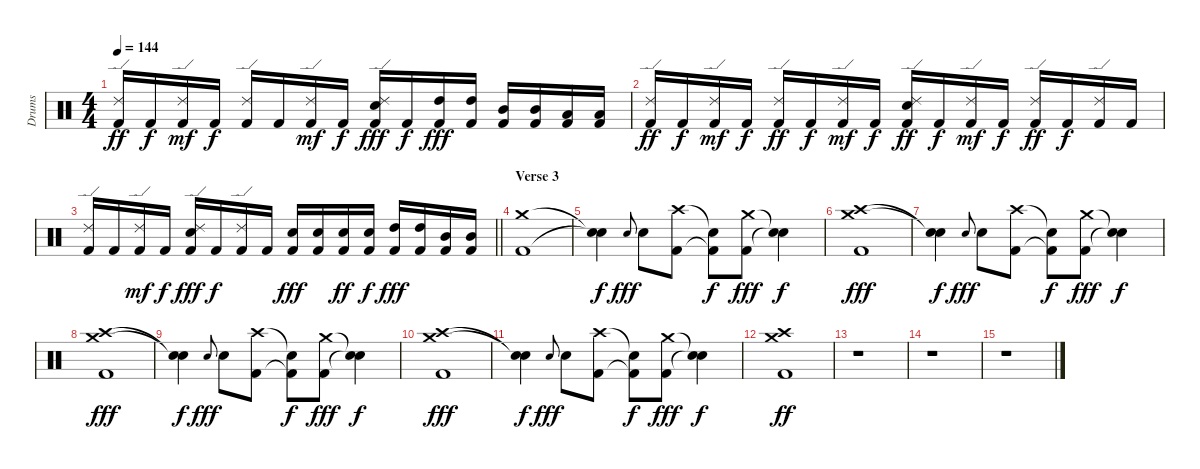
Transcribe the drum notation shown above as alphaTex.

\track ("Drums" "Drums") {instrument percussion}
\staff {score}
\articulation defaults
\ts (4 4)
\tempo 144
\clef neutral
\ks c
("Ride (edge) 2" "Kick (hit) 2").16{dy ff} "Kick (hit) 2".16{dy f} ("Ride (edge) 2" "Kick (hit) 2").16{dy mf} "Kick (hit) 2".16{dy f} ("Ride (edge) 2" "Kick (hit) 2").16 "Kick (hit) 2".16 ("Ride (edge) 2" "Kick (hit) 2").16{dy mf} "Kick (hit) 2".16{dy f} ("Ride (edge) 2" "Electric Snare (hit)" "Kick (hit) 2").16{dy fff} "Kick (hit) 2".16{dy f} ("High Tom (hit)" "Kick (hit) 2").16{dy fff} ("High Tom (hit)" "Kick (hit) 2").16 ("Mid Tom (hit)" "Kick (hit) 2").16 ("Mid Tom (hit)" "Kick (hit) 2").16 ("Low Tom (hit)" "Kick (hit) 2").16 ("Low Tom (hit)" "Kick (hit) 2").16 |
("Ride (edge) 2" "Kick (hit) 2").16{dy ff} "Kick (hit) 2".16{dy f} ("Ride (edge) 2" "Kick (hit) 2").16{dy mf} "Kick (hit) 2".16{dy f} ("Ride (edge) 2" "Kick (hit) 2").16{dy ff} "Kick (hit) 2".16{dy f} ("Ride (edge) 2" "Kick (hit) 2").16{dy mf} "Kick (hit) 2".16{dy f} ("Ride (edge) 2" "Electric Snare (hit)" "Kick (hit) 2").16{dy ff} "Kick (hit) 2".16{dy f} ("Ride (edge) 2" "Kick (hit) 2").16{dy mf} "Kick (hit) 2".16{dy f} ("Ride (edge) 2" "Kick (hit) 2").16{dy ff} "Kick (hit) 2".16{dy f} ("Ride (edge) 2" "Kick (hit) 2").16 "Kick (hit) 2".16 |
\barLineRight lightlight
("Ride (edge) 2" "Kick (hit) 2").16 "Kick (hit) 2".16 ("Ride (edge) 2" "Kick (hit) 2").16{dy mf} "Kick (hit) 2".16{dy f} ("Ride (edge) 2" "Electric Snare (hit)" "Kick (hit) 2").16{dy fff} "Kick (hit) 2".16{dy f} ("Ride (edge) 2" "Kick (hit) 2").16 "Kick (hit) 2".16 ("Electric Snare (hit)" "Kick (hit) 2").16{dy fff} ("Electric Snare (hit)" "Kick (hit) 2").16 ("Electric Snare (hit)" "Kick (hit) 2").16{dy ff} ("Electric Snare (hit)" "Kick (hit) 2").16{dy f} ("High Tom (hit)" "Kick (hit) 2").16{dy fff} ("High Tom (hit)" "Kick (hit) 2").16 ("Mid Tom (hit)" "Kick (hit) 2").16 ("Mid Tom (hit)" "Kick (hit) 2").16 |
\section ("" "Verse 3")
("Crash medium (hit)" "Kick (hit) 2").1 |
("Snare (hit)"{t} "Snare (hit)"{t}).4{dy f} "Electric Snare (hit)".8{gr onbeat dy fff} "Electric Snare (hit)".8 ("Crash high (hit)" "Kick (hit) 2").8 ("Snare (hit)"{t} "Kick (hit) 2"{t}).8{dy f} ("Crash medium (hit)" "Kick (hit) 2").8{dy fff} ("Snare (hit)"{t} "Snare (hit)"{t}).4{dy f} |
("Crash medium (hit)" "Crash high (hit)" "Kick (hit) 2").1{dy fff} |
("Snare (hit)"{t} "Snare (hit)"{t}).4{dy f} "Electric Snare (hit)".8{gr onbeat dy fff} "Electric Snare (hit)".8 ("Crash high (hit)" "Kick (hit) 2").8 ("Snare (hit)"{t} "Kick (hit) 2"{t}).8{dy f} ("Crash medium (hit)" "Kick (hit) 2").8{dy fff} ("Snare (hit)"{t} "Snare (hit)"{t}).4{dy f} |
("Crash medium (hit)" "Crash high (hit)" "Kick (hit) 2").1{dy fff} |
("Snare (hit)"{t} "Snare (hit)"{t}).4{dy f} "Electric Snare (hit)".8{gr onbeat dy fff} "Electric Snare (hit)".8 ("Crash high (hit)" "Kick (hit) 2").8 ("Snare (hit)"{t} "Kick (hit) 2"{t}).8{dy f} ("Crash medium (hit)" "Kick (hit) 2").8{dy fff} ("Snare (hit)"{t} "Snare (hit)"{t}).4{dy f} |
("Crash medium (hit)" "Crash high (hit)" "Kick (hit) 2").1{dy fff} |
("Snare (hit)"{t} "Snare (hit)"{t}).4{dy f} "Electric Snare (hit)".8{gr onbeat dy fff} "Electric Snare (hit)".8 ("Crash high (hit)" "Kick (hit) 2").8 ("Snare (hit)"{t} "Kick (hit) 2"{t}).8{dy f} ("Crash medium (hit)" "Kick (hit) 2").8{dy fff} ("Snare (hit)"{t} "Snare (hit)"{t}).4{dy f} |
("Crash medium (hit)" "Crash high (hit)" "Kick (hit) 2").1{dy ff} |
r.1 |
r.1 |
r.1
